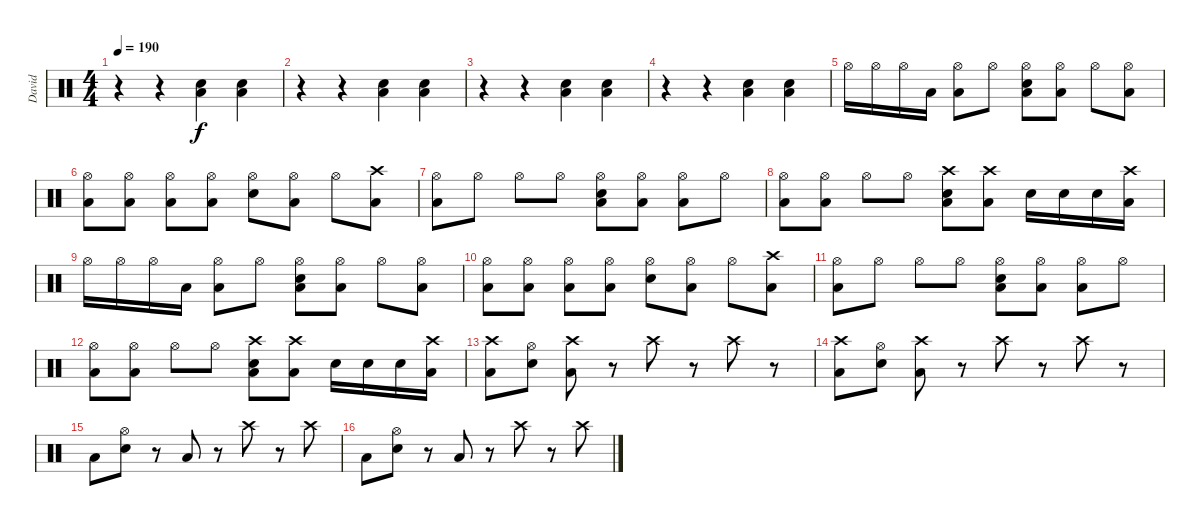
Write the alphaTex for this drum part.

\track ("David" "David") {instrument percussion}
\staff {score}
\articulation defaults
\ts (4 4)
\tempo 190
\clef neutral
\ks c
r.4{dy f} r.4 ("Electric Snare (hit)" "Low Tom (hit)").4 ("Electric Snare (hit)" "Low Tom (hit)").4 |
r.4 r.4 ("Electric Snare (hit)" "Low Tom (hit)").4 ("Electric Snare (hit)" "Low Tom (hit)").4 |
r.4 r.4 ("Electric Snare (hit)" "Low Tom (hit)").4 ("Electric Snare (hit)" "Low Tom (hit)").4 |
r.4 r.4 ("Electric Snare (hit)" "Low Tom (hit)").4 ("Electric Snare (hit)" "Low Tom (hit)").4 |
"Hi-Hat (open)".16 "Hi-Hat (open)".16 "Hi-Hat (open)".16 "Low Tom (hit)".16 ("Hi-Hat (open)" "Low Tom (hit)").8 "Hi-Hat (open)".8 ("Hi-Hat (open)" "Electric Snare (hit)" "Low Tom (hit)").8 ("Hi-Hat (open)" "Low Tom (hit)").8 "Hi-Hat (open)".8 ("Hi-Hat (open)" "Low Tom (hit)").8 |
("Hi-Hat (open)" "Low Tom (hit)").8 ("Hi-Hat (open)" "Low Tom (hit)").8 ("Hi-Hat (open)" "Low Tom (hit)").8 ("Hi-Hat (open)" "Low Tom (hit)").8 ("Hi-Hat (open)" "Electric Snare (hit)").8 ("Hi-Hat (open)" "Low Tom (hit)").8 "Hi-Hat (open)".8 ("Crash high (hit)" "Low Tom (hit)").8 |
("Hi-Hat (open)" "Low Tom (hit)").8 "Hi-Hat (open)".8 "Hi-Hat (open)".8 "Hi-Hat (open)".8 ("Hi-Hat (open)" "Electric Snare (hit)" "Low Tom (hit)").8 ("Hi-Hat (open)" "Low Tom (hit)").8 ("Hi-Hat (open)" "Low Tom (hit)").8 "Hi-Hat (open)".8 |
("Hi-Hat (open)" "Low Tom (hit)").8 ("Hi-Hat (open)" "Low Tom (hit)").8 "Hi-Hat (open)".8 "Hi-Hat (open)".8 ("Crash high (hit)" "Electric Snare (hit)" "Low Tom (hit)").8 ("Crash high (hit)" "Low Tom (hit)").8 "Electric Snare (hit)".16 "Electric Snare (hit)".16 "Electric Snare (hit)".16 ("Crash high (hit)" "Low Tom (hit)").16 |
"Hi-Hat (open)".16 "Hi-Hat (open)".16 "Hi-Hat (open)".16 "Low Tom (hit)".16 ("Hi-Hat (open)" "Low Tom (hit)").8 "Hi-Hat (open)".8 ("Hi-Hat (open)" "Electric Snare (hit)" "Low Tom (hit)").8 ("Hi-Hat (open)" "Low Tom (hit)").8 "Hi-Hat (open)".8 ("Hi-Hat (open)" "Low Tom (hit)").8 |
("Hi-Hat (open)" "Low Tom (hit)").8 ("Hi-Hat (open)" "Low Tom (hit)").8 ("Hi-Hat (open)" "Low Tom (hit)").8 ("Hi-Hat (open)" "Low Tom (hit)").8 ("Hi-Hat (open)" "Electric Snare (hit)").8 ("Hi-Hat (open)" "Low Tom (hit)").8 "Hi-Hat (open)".8 ("Crash high (hit)" "Low Tom (hit)").8 |
("Hi-Hat (open)" "Low Tom (hit)").8 "Hi-Hat (open)".8 "Hi-Hat (open)".8 "Hi-Hat (open)".8 ("Hi-Hat (open)" "Electric Snare (hit)" "Low Tom (hit)").8 ("Hi-Hat (open)" "Low Tom (hit)").8 ("Hi-Hat (open)" "Low Tom (hit)").8 "Hi-Hat (open)".8 |
("Hi-Hat (open)" "Low Tom (hit)").8 ("Hi-Hat (open)" "Low Tom (hit)").8 "Hi-Hat (open)".8 "Hi-Hat (open)".8 ("Crash high (hit)" "Electric Snare (hit)" "Low Tom (hit)").8 ("Crash high (hit)" "Low Tom (hit)").8 "Electric Snare (hit)".16 "Electric Snare (hit)".16 "Electric Snare (hit)".16 ("Crash high (hit)" "Low Tom (hit)").16 |
("Crash high (hit)" "Low Tom (hit)").8 ("Hi-Hat (open)" "Electric Snare (hit)").8 ("Crash high (hit)" "Low Tom (hit)").8 r.8 "Crash high (hit)".8 r.8 "Crash high (hit)".8 r.8 |
("Crash high (hit)" "Low Tom (hit)").8 ("Hi-Hat (open)" "Electric Snare (hit)").8 ("Crash high (hit)" "Low Tom (hit)").8 r.8 "Crash high (hit)".8 r.8 "Crash high (hit)".8 r.8 |
"Low Tom (hit)".8 ("Hi-Hat (open)" "Electric Snare (hit)").8 r.8 "Low Tom (hit)".8 r.8 "Crash high (hit)".8 r.8 "Crash high (hit)".8 |
"Low Tom (hit)".8 ("Hi-Hat (open)" "Electric Snare (hit)").8 r.8 "Low Tom (hit)".8 r.8 "Crash high (hit)".8 r.8 "Crash high (hit)".8
